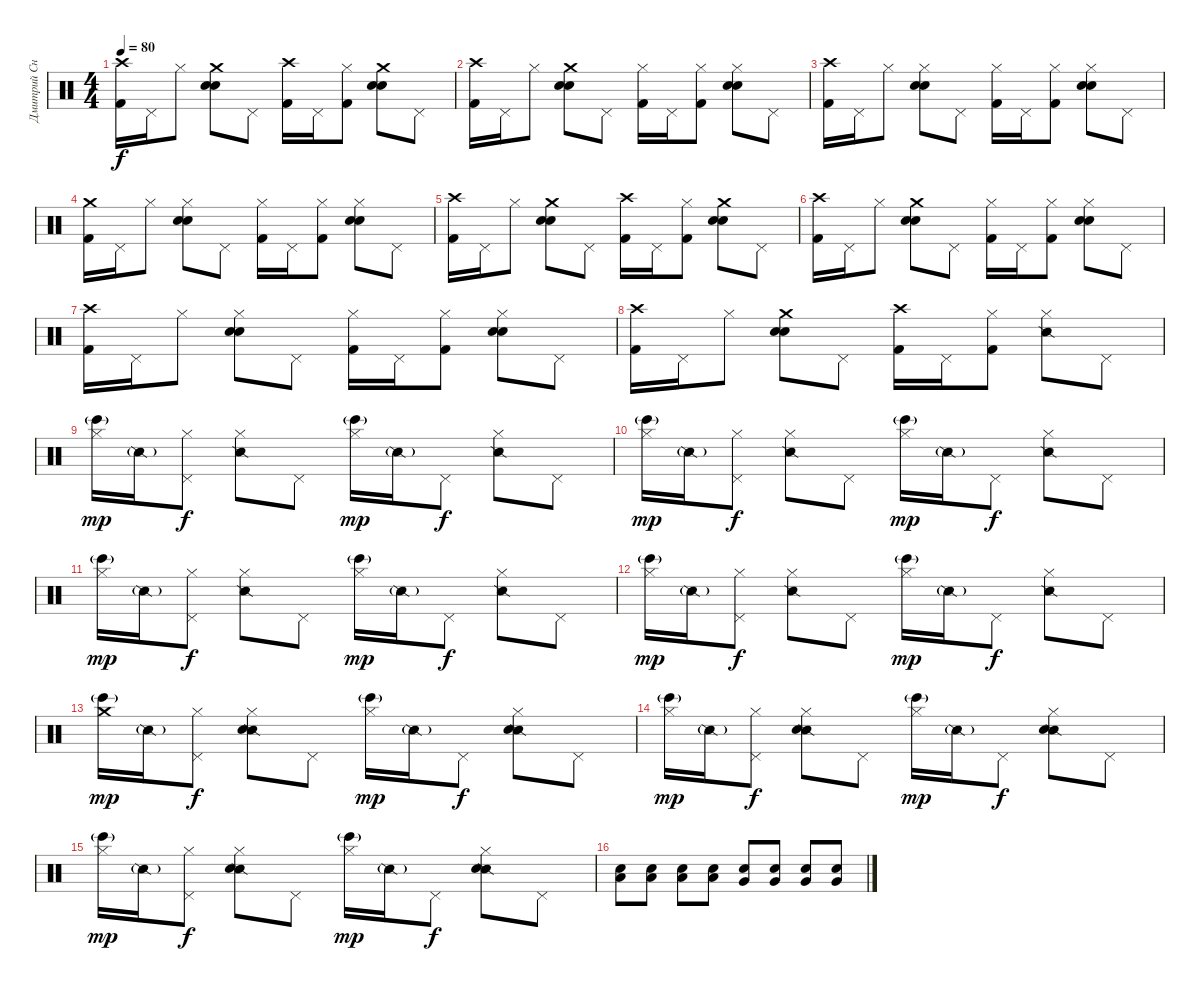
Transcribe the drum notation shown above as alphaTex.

\track ("Дмитрий Снэйк" "Дмитрий Сн") {instrument percussion}
\staff {score}
\articulation defaults
\ts (4 4)
\tempo 80
\clef neutral
\ks c
("Crash high (hit)" "Kick (hit) 2").16{dy f} "Pedal Hi-Hat (hit)".16 "Hi-Hat (closed)".8 ("Crash medium (hit)" "Electric Snare (hit)" "Snare (hit) 2").8 "Pedal Hi-Hat (hit)".8 ("Crash high (hit)" "Kick (hit) 2").16 "Pedal Hi-Hat (hit)".16 ("Hi-Hat (closed)" "Kick (hit) 2").8 ("Crash medium (hit)" "Electric Snare (hit)" "Snare (hit) 2").8 "Pedal Hi-Hat (hit)".8 |
("Crash high (hit)" "Kick (hit) 2").16 "Pedal Hi-Hat (hit)".16 "Hi-Hat (closed)".8 ("Crash medium (hit)" "Electric Snare (hit)" "Snare (hit) 2").8 "Pedal Hi-Hat (hit)".8 ("Hi-Hat (closed)" "Kick (hit) 2").16 "Pedal Hi-Hat (hit)".16 ("Hi-Hat (closed)" "Kick (hit) 2").8 ("Hi-Hat (closed)" "Electric Snare (hit)" "Snare (hit) 2").8 "Pedal Hi-Hat (hit)".8 |
("Crash high (hit)" "Kick (hit) 2").16 "Pedal Hi-Hat (hit)".16 "Hi-Hat (closed)".8 ("Hi-Hat (closed)" "Electric Snare (hit)" "Snare (hit) 2").8 "Pedal Hi-Hat (hit)".8 ("Hi-Hat (closed)" "Kick (hit) 2").16 "Pedal Hi-Hat (hit)".16 ("Hi-Hat (closed)" "Kick (hit) 2").8 ("Hi-Hat (closed)" "Electric Snare (hit)" "Snare (hit) 2").8 "Pedal Hi-Hat (hit)".8 |
("Crash medium (hit)" "Kick (hit) 2").16 "Pedal Hi-Hat (hit)".16 "Hi-Hat (closed)".8 ("Hi-Hat (closed)" "Electric Snare (hit)" "Snare (hit) 2").8 "Pedal Hi-Hat (hit)".8 ("Hi-Hat (closed)" "Kick (hit) 2").16 "Pedal Hi-Hat (hit)".16 ("Hi-Hat (closed)" "Kick (hit) 2").8 ("Hi-Hat (closed)" "Electric Snare (hit)" "Snare (hit) 2").8 "Pedal Hi-Hat (hit)".8 |
("Crash high (hit)" "Kick (hit) 2").16 "Pedal Hi-Hat (hit)".16 "Hi-Hat (closed)".8 ("Crash medium (hit)" "Electric Snare (hit)" "Snare (hit) 2").8 "Pedal Hi-Hat (hit)".8 ("Crash high (hit)" "Kick (hit) 2").16 "Pedal Hi-Hat (hit)".16 ("Hi-Hat (closed)" "Kick (hit) 2").8 ("Crash medium (hit)" "Electric Snare (hit)" "Snare (hit) 2").8 "Pedal Hi-Hat (hit)".8 |
("Crash high (hit)" "Kick (hit) 2").16 "Pedal Hi-Hat (hit)".16 "Hi-Hat (closed)".8 ("Crash medium (hit)" "Electric Snare (hit)" "Snare (hit) 2").8 "Pedal Hi-Hat (hit)".8 ("Hi-Hat (closed)" "Kick (hit) 2").16 "Pedal Hi-Hat (hit)".16 ("Hi-Hat (closed)" "Kick (hit) 2").8 ("Hi-Hat (closed)" "Electric Snare (hit)" "Snare (hit) 2").8 "Pedal Hi-Hat (hit)".8 |
("Crash high (hit)" "Kick (hit) 2").16 "Pedal Hi-Hat (hit)".16 "Hi-Hat (closed)".8 ("Hi-Hat (closed)" "Electric Snare (hit)" "Snare (hit) 2").8 "Pedal Hi-Hat (hit)".8 ("Hi-Hat (closed)" "Kick (hit) 2").16 "Pedal Hi-Hat (hit)".16 ("Hi-Hat (closed)" "Kick (hit) 2").8 ("Hi-Hat (closed)" "Electric Snare (hit)" "Snare (hit) 2").8 "Pedal Hi-Hat (hit)".8 |
("Crash high (hit)" "Kick (hit) 2").16 "Pedal Hi-Hat (hit)".16 "Hi-Hat (closed)".8 ("Crash medium (hit)" "Electric Snare (hit)" "Snare (hit) 2").8 "Pedal Hi-Hat (hit)".8 ("Crash high (hit)" "Kick (hit) 2").16 "Pedal Hi-Hat (hit)".16 ("Hi-Hat (closed)" "Kick (hit) 2").8 ("Hi-Hat (closed)" "Snare (side stick) 2").8 "Pedal Hi-Hat (hit)".8 |
("Hi-Hat (closed)" "Bongo High (hit)"{g}).16{dy mp} "Snare (side stick) 2"{g}.16 ("Pedal Hi-Hat (hit)" "Hi-Hat (closed)").8{dy f} ("Hi-Hat (closed)" "Snare (side stick) 2").8 "Pedal Hi-Hat (hit)".8 ("Hi-Hat (closed)" "Bongo High (hit)"{g}).16{dy mp} "Snare (side stick) 2"{g}.16 "Pedal Hi-Hat (hit)".8{dy f} ("Hi-Hat (closed)" "Snare (side stick) 2").8 "Pedal Hi-Hat (hit)".8 |
("Hi-Hat (closed)" "Bongo High (hit)"{g}).16{dy mp} "Snare (side stick) 2"{g}.16 ("Pedal Hi-Hat (hit)" "Hi-Hat (closed)").8{dy f} ("Hi-Hat (closed)" "Snare (side stick) 2").8 "Pedal Hi-Hat (hit)".8 ("Hi-Hat (closed)" "Bongo High (hit)"{g}).16{dy mp} "Snare (side stick) 2"{g}.16 "Pedal Hi-Hat (hit)".8{dy f} ("Hi-Hat (closed)" "Snare (side stick) 2").8 "Pedal Hi-Hat (hit)".8 |
("Hi-Hat (closed)" "Bongo High (hit)"{g}).16{dy mp} "Snare (side stick) 2"{g}.16 ("Pedal Hi-Hat (hit)" "Hi-Hat (closed)").8{dy f} ("Hi-Hat (closed)" "Snare (side stick) 2").8 "Pedal Hi-Hat (hit)".8 ("Hi-Hat (closed)" "Bongo High (hit)"{g}).16{dy mp} "Snare (side stick) 2"{g}.16 "Pedal Hi-Hat (hit)".8{dy f} ("Hi-Hat (closed)" "Snare (side stick) 2").8 "Pedal Hi-Hat (hit)".8 |
("Hi-Hat (closed)" "Bongo High (hit)"{g}).16{dy mp} "Snare (side stick) 2"{g}.16 ("Pedal Hi-Hat (hit)" "Hi-Hat (closed)").8{dy f} ("Hi-Hat (closed)" "Snare (side stick) 2").8 "Pedal Hi-Hat (hit)".8 ("Hi-Hat (closed)" "Bongo High (hit)"{g}).16{dy mp} "Snare (side stick) 2"{g}.16 "Pedal Hi-Hat (hit)".8{dy f} ("Hi-Hat (closed)" "Snare (side stick) 2").8 "Pedal Hi-Hat (hit)".8 |
("Crash medium (hit)" "Bongo High (hit)"{g}).16{dy mp} "Snare (side stick) 2"{g}.16 ("Pedal Hi-Hat (hit)" "Hi-Hat (closed)").8{dy f} ("Hi-Hat (closed)" "Snare (side stick) 2" "Snare (hit) 2").8 "Pedal Hi-Hat (hit)".8 ("Hi-Hat (closed)" "Bongo High (hit)"{g}).16{dy mp} "Snare (side stick) 2"{g}.16 "Pedal Hi-Hat (hit)".8{dy f} ("Hi-Hat (closed)" "Snare (side stick) 2" "Snare (hit) 2").8 "Pedal Hi-Hat (hit)".8 |
("Hi-Hat (closed)" "Bongo High (hit)"{g}).16{dy mp} "Snare (side stick) 2"{g}.16 ("Pedal Hi-Hat (hit)" "Hi-Hat (closed)").8{dy f} ("Hi-Hat (closed)" "Snare (side stick) 2" "Snare (hit) 2").8 "Pedal Hi-Hat (hit)".8 ("Hi-Hat (closed)" "Bongo High (hit)"{g}).16{dy mp} "Snare (side stick) 2"{g}.16 "Pedal Hi-Hat (hit)".8{dy f} ("Hi-Hat (closed)" "Snare (side stick) 2" "Snare (hit) 2").8 "Pedal Hi-Hat (hit)".8 |
("Hi-Hat (closed)" "Bongo High (hit)"{g}).16{dy mp} "Snare (side stick) 2"{g}.16 ("Pedal Hi-Hat (hit)" "Hi-Hat (closed)").8{dy f} ("Hi-Hat (closed)" "Snare (side stick) 2" "Snare (hit) 2").8 "Pedal Hi-Hat (hit)".8 ("Hi-Hat (closed)" "Bongo High (hit)"{g}).16{dy mp} "Snare (side stick) 2"{g}.16 "Pedal Hi-Hat (hit)".8{dy f} ("Hi-Hat (closed)" "Snare (side stick) 2" "Snare (hit) 2").8 "Pedal Hi-Hat (hit)".8 |
("Low Floor Tom (hit)" "Snare (hit) 2").8 ("Low Floor Tom (hit)" "Snare (hit) 2").8 ("Low Floor Tom (hit)" "Snare (hit) 2").8 ("Low Floor Tom (hit)" "Snare (hit) 2").8 ("Very Low Tom (hit)" "Snare (hit) 2").8 ("Very Low Tom (hit)" "Snare (hit) 2").8 ("Very Low Tom (hit)" "Snare (hit) 2").8 ("Very Low Tom (hit)" "Snare (hit) 2").8
